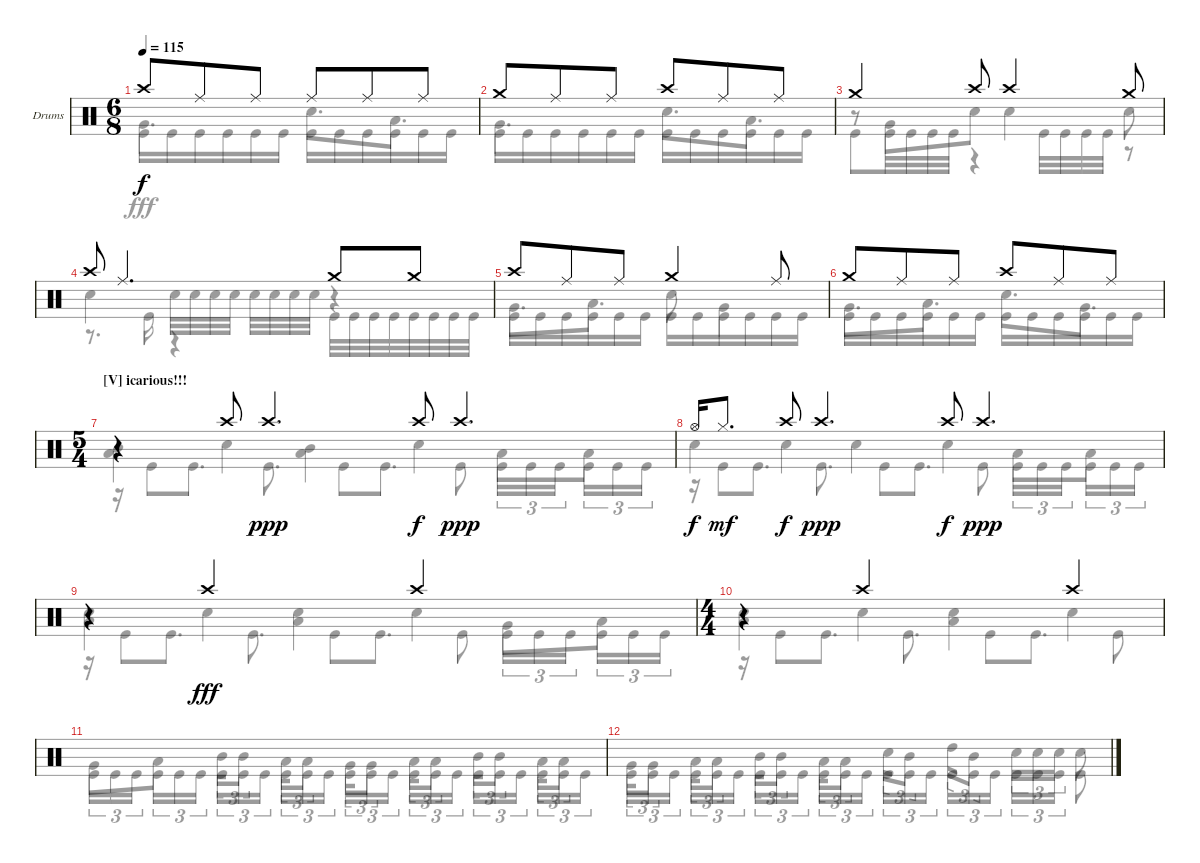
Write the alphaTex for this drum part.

\defaultSystemsLayout 4
\bracketExtendMode groupsimilarinstruments
\firstSystemTrackNameOrientation horizontal
\otherSystemsTrackNameOrientation horizontal
\track ("Drumkit" "Drums") {instrument percussion}
\staff {score}
\articulation defaults
\voice
\ts (6 8)
\tempo 115
\clef neutral
\ks c "Crash high (hit)".8{dy f} "Ride (middle)".8 "Ride (middle)".8 "Ride (middle)".8 "Ride (middle)".8 "Ride (middle)".8
|
"Crash medium (hit)".8 "Ride (middle)".8 "Ride (middle)".8 "Crash high (hit)".8 "Ride (middle)".8 "Ride (middle)".8 |
"Crash medium (hit)".4 "Crash high (hit)".8 "Crash high (hit)".4 "Crash medium (hit)".8 |
"Crash high (hit)".8 "Ride (middle)".4{d} "Crash medium (hit)".8 "Crash medium (hit)".8 |
"Crash high (hit)".8 "Ride (middle)".8 "Ride (middle)".8 "Crash medium (hit)".4 "Ride (middle)".8 |
"Crash medium (hit)".8 "Ride (middle)".8 "Ride (middle)".8 "Crash high (hit)".8 "Ride (middle)".8 "Ride (middle)".8 |
\ts (5 4)
\beaming (8 2 2 2 2 2)
\section ("V" "icarious!!!")
r.4 "Crash high (hit)".8 "Crash high (hit)".4{d dy ppp} "Crash high (hit)".8{dy f} "Crash high (hit)".4{d dy ppp} |
"Hi-Hat (open)".16{dy f} "Hi-Hat (closed)".8{d dy mf} "Crash high (hit)".8{dy f} "Crash high (hit)".4{d dy ppp} "Crash high (hit)".8{dy f} "Crash high (hit)".4{d dy ppp} |
r.4 "Crash high (hit)".2{dy fff} "Crash high (hit)".2 |
\ts (4 4)
r.4 "Crash high (hit)".2 "Crash high (hit)".4 |
|
\voice
\clef neutral
\ottava regular
\simile none
\ks c "Very Low Tom (hit)".4{d dy fff} "Snare (hit) 2".8{d} "Low Tom (hit)".8{d}
|
"Very Low Tom (hit)".4{d} "Snare (hit) 2".8{d} "Low Tom (hit)".8{d} |
r.8 "Very Low Tom (hit)".8 "Snare (hit) 2".8 "Snare (hit) 2".4 "Snare (hit) 2".8 |
"Snare (hit) 2".4 "Snare (hit) 2".32 "Snare (hit) 2".32 "Snare (hit) 2".32 "Snare (hit) 2".32 "Snare (hit) 2".32 "Snare (hit) 2".32 "Snare (hit) 2".32 "Snare (hit) 2".32 r.4 |
"Very Low Tom (hit)".8{d} "Low Tom (hit)".8{d} "Snare (hit) 2".8 "Very Low Tom (hit)".4 |
"Very Low Tom (hit)".8{d} "Low Tom (hit)".8{d} "Snare (hit) 2".8{d} "Very Low Tom (hit)".8{d} |
("Mid Tom (hit)" "Low Tom (hit)").4 "Snare (hit) 2".4 ("Mid Tom (hit)" "Low Tom (hit)").4 "Snare (hit) 2".4 "Low Tom (hit)".8 "Low Tom (hit)".8 |
"Snare (hit) 2".4 "Snare (hit) 2".4 "Snare (hit) 2".4 "Snare (hit) 2".4 "Low Tom (hit)".8 "Low Tom (hit)".8 |
("Snare (hit) 2" "Low Tom (hit)").4 "Snare (hit) 2".4 ("Snare (hit) 2" "Low Tom (hit)").4 "Snare (hit) 2".4 "Very Low Tom (hit)".8 "Low Tom (hit)".8 |
("Snare (hit) 2" "Low Tom (hit)").4 "Snare (hit) 2".4 ("Snare (hit) 2" "Low Tom (hit)").4 "Snare (hit) 2".4 |
"Very Low Tom (hit)".8 "Low Tom (hit)".8 "Mid Tom (hit)".16{tu (3 2)} "Mid Tom (hit)".8{tu (3 2)} "Low Tom (hit)".16{tu (3 2)} "Low Tom (hit)".8{tu (3 2)} "Very Low Tom (hit)".16{tu (3 2)} "Very Low Tom (hit)".8{tu (3 2)} "Low Tom (hit)".16{tu (3 2)} "Low Tom (hit)".8{tu (3 2)} "Mid Tom (hit)".16{tu (3 2)} "Mid Tom (hit)".8{tu (3 2)} "Low Tom (hit)".16{tu (3 2)} "Low Tom (hit)".8{tu (3 2)} |
"Very Low Tom (hit)".16{tu (3 2)} "Very Low Tom (hit)".8{tu (3 2)} "Low Tom (hit)".16{tu (3 2)} "Low Tom (hit)".8{tu (3 2)} "Mid Tom (hit)".16{tu (3 2)} "Mid Tom (hit)".8{tu (3 2)} "Low Tom (hit)".16{tu (3 2)} "Low Tom (hit)".8{tu (3 2)} "Snare (hit) 2".16{tu (3 2)} "Mid Tom (hit)".8{tu (3 2)} "High Tom (hit)".16{tu (3 2)} "Mid Tom (hit)".8{tu (3 2)} "Snare (hit) 2".16{tu (3 2)} "Snare (hit) 2".16{tu (3 2)} "Snare (hit) 2".16{tu (3 2)} "Snare (hit) 2".8
\voice
\clef neutral
\ottava regular
\simile none
\ks c "Kick (hit)".16{dy fff} "Kick (hit)".16 "Kick (hit)".16 "Kick (hit)".16 "Kick (hit)".16 "Kick (hit)".16 "Kick (hit)".16 "Kick (hit)".16 "Kick (hit)".16 "Kick (hit)".16 "Kick (hit)".16 "Kick (hit)".16
|
"Kick (hit)".16 "Kick (hit)".16 "Kick (hit)".16 "Kick (hit)".16 "Kick (hit)".16 "Kick (hit)".16 "Kick (hit)".16 "Kick (hit)".16 "Kick (hit)".16 "Kick (hit)".16 "Kick (hit)".16 "Kick (hit)".16 |
"Kick (hit)".8 "Kick (hit)".32 "Kick (hit)".32 "Kick (hit)".32 "Kick (hit)".32 r.4 "Kick (hit)".32 "Kick (hit)".32 "Kick (hit)".32 "Kick (hit)".32 r.8 |
r.8{d} "Kick (hit)".16 r.4 "Kick (hit)".32 "Kick (hit)".32 "Kick (hit)".32 "Kick (hit)".32 "Kick (hit)".32 "Kick (hit)".32 "Kick (hit)".32 "Kick (hit)".32 |
"Kick (hit)".16 "Kick (hit)".16 "Kick (hit)".16 "Kick (hit)".16 "Kick (hit)".16 "Kick (hit)".16 "Kick (hit)".16 "Kick (hit)".16 "Kick (hit)".16 "Kick (hit)".16 "Kick (hit)".16 "Kick (hit)".16 |
"Kick (hit)".16 "Kick (hit)".16 "Kick (hit)".16 "Kick (hit)".16 "Kick (hit)".16 "Kick (hit)".16 "Kick (hit)".16 "Kick (hit)".16 "Kick (hit)".16 "Kick (hit)".16 "Kick (hit)".16 "Kick (hit)".16 |
r.16 "Kick (hit)".8 "Kick (hit)".8{d} "Kick (hit)".8{d} "Kick (hit)".8 "Kick (hit)".8{d} "Kick (hit)".8 "Kick (hit)".16{tu (3 2)} "Kick (hit)".16{tu (3 2)} "Kick (hit)".16{tu (3 2)} "Kick (hit)".16{tu (3 2)} "Kick (hit)".16{tu (3 2)} "Kick (hit)".16{tu (3 2)} |
r.16 "Kick (hit)".8 "Kick (hit)".8{d} "Kick (hit)".8{d} "Kick (hit)".8 "Kick (hit)".8{d} "Kick (hit)".8 "Kick (hit)".16{tu (3 2)} "Kick (hit)".16{tu (3 2)} "Kick (hit)".16{tu (3 2)} "Kick (hit)".16{tu (3 2)} "Kick (hit)".16{tu (3 2)} "Kick (hit)".16{tu (3 2)} |
r.16 "Kick (hit)".8 "Kick (hit)".8{d} "Kick (hit)".8{d} "Kick (hit)".8 "Kick (hit)".8{d} "Kick (hit)".8 "Kick (hit)".16{tu (3 2)} "Kick (hit)".16{tu (3 2)} "Kick (hit)".16{tu (3 2)} "Kick (hit)".16{tu (3 2)} "Kick (hit)".16{tu (3 2)} "Kick (hit)".16{tu (3 2)} |
r.16 "Kick (hit)".8 "Kick (hit)".8{d} "Kick (hit)".8{d} "Kick (hit)".8 "Kick (hit)".8{d} "Kick (hit)".8 |
"Kick (hit)".16{tu (3 2)} "Kick (hit)".16{tu (3 2)} "Kick (hit)".16{tu (3 2)} "Kick (hit)".16{tu (3 2)} "Kick (hit)".16{tu (3 2)} "Kick (hit)".16{tu (3 2)} "Kick (hit)".16{tu (3 2)} "Kick (hit)".16{tu (3 2)} "Kick (hit)".16{tu (3 2)} "Kick (hit)".16{tu (3 2)} "Kick (hit)".16{tu (3 2)} "Kick (hit)".16{tu (3 2)} "Kick (hit)".16{tu (3 2)} "Kick (hit)".16{tu (3 2)} "Kick (hit)".16{tu (3 2)} "Kick (hit)".16{tu (3 2)} "Kick (hit)".16{tu (3 2)} "Kick (hit)".16{tu (3 2)} "Kick (hit)".16{tu (3 2)} "Kick (hit)".16{tu (3 2)} "Kick (hit)".16{tu (3 2)} "Kick (hit)".16{tu (3 2)} "Kick (hit)".16{tu (3 2)} "Kick (hit)".16{tu (3 2)} |
"Kick (hit)".16{tu (3 2)} "Kick (hit)".16{tu (3 2)} "Kick (hit)".16{tu (3 2)} "Kick (hit)".16{tu (3 2)} "Kick (hit)".16{tu (3 2)} "Kick (hit)".16{tu (3 2)} "Kick (hit)".16{tu (3 2)} "Kick (hit)".16{tu (3 2)} "Kick (hit)".16{tu (3 2)} "Kick (hit)".16{tu (3 2)} "Kick (hit)".16{tu (3 2)} "Kick (hit)".16{tu (3 2)} "Kick (hit)".16{tu (3 2)} "Kick (hit)".16{tu (3 2)} "Kick (hit)".16{tu (3 2)} "Kick (hit)".16{tu (3 2)} "Kick (hit)".16{tu (3 2)} "Kick (hit)".16{tu (3 2)} "Kick (hit)".16{tu (3 2)} "Kick (hit)".16{tu (3 2)} "Kick (hit)".16{tu (3 2)} "Kick (hit)".8
